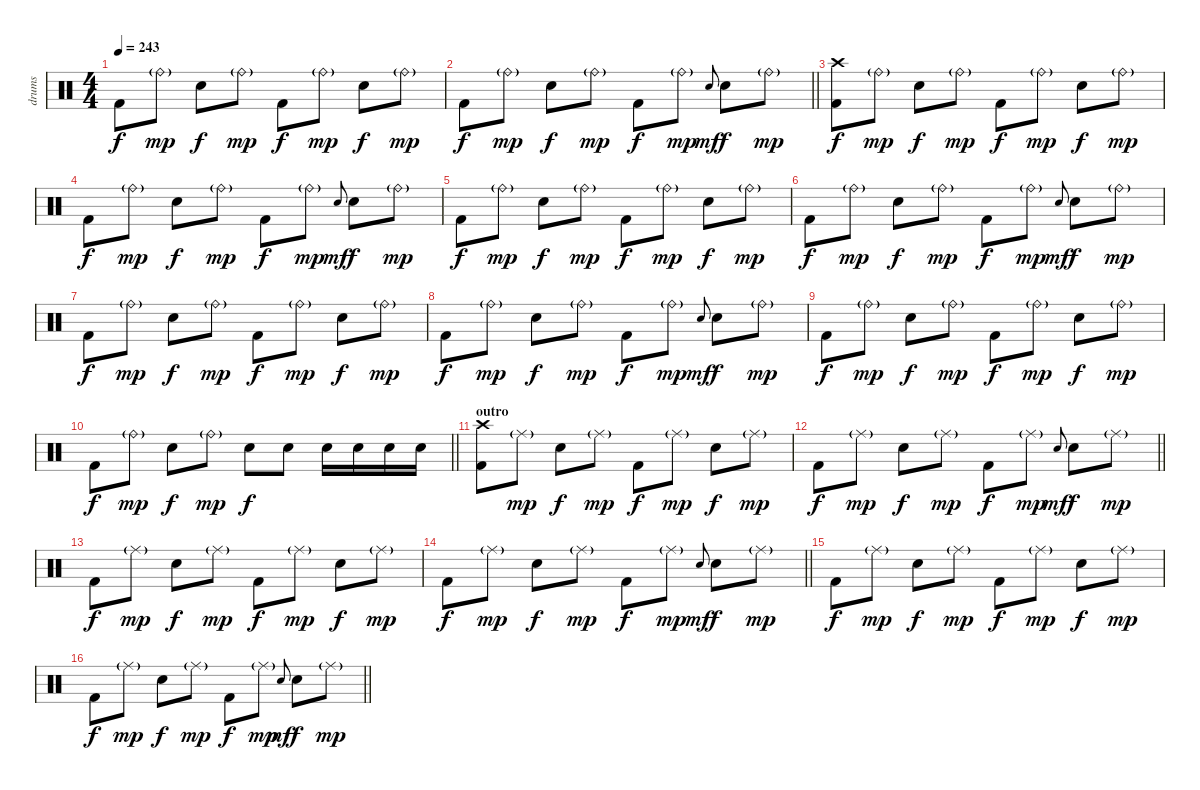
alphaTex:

\track ("drums" "drums") {instrument percussion}
\staff {score}
\articulation defaults
\ts (4 4)
\tempo 243
\clef neutral
\ks c "Kick (hit) 2".8{dy f} "Ride (bell)"{g}.8{dy mp} "Electric Snare (hit)".8{dy f} "Ride (bell)"{g}.8{dy mp} "Kick (hit) 2".8{dy f} "Ride (bell)"{g}.8{dy mp} "Electric Snare (hit)".8{dy f} "Ride (bell)"{g}.8{dy mp}
|
\barLineRight lightlight "Kick (hit) 2".8{dy f} "Ride (bell)"{g}.8{dy mp} "Electric Snare (hit)".8{dy f} "Ride (bell)"{g}.8{dy mp} "Kick (hit) 2".8{dy f} "Ride (bell)"{g}.8{dy mp} "Electric Snare (hit)"{x}.8{gr onbeat dy mf} "Electric Snare (hit)".8{dy f} "Ride (bell)"{g}.8{dy mp}
|
("Kick (hit) 2" "Crash high (hit)").8{dy f} "Ride (bell)"{g}.8{dy mp} "Electric Snare (hit)".8{dy f} "Ride (bell)"{g}.8{dy mp} "Kick (hit) 2".8{dy f} "Ride (bell)"{g}.8{dy mp} "Electric Snare (hit)".8{dy f} "Ride (bell)"{g}.8{dy mp} |
"Kick (hit) 2".8{dy f} "Ride (bell)"{g}.8{dy mp} "Electric Snare (hit)".8{dy f} "Ride (bell)"{g}.8{dy mp} "Kick (hit) 2".8{dy f} "Ride (bell)"{g}.8{dy mp} "Electric Snare (hit)"{x}.8{gr onbeat dy mf} "Electric Snare (hit)".8{dy f} "Ride (bell)"{g}.8{dy mp} |
"Kick (hit) 2".8{dy f} "Ride (bell)"{g}.8{dy mp} "Electric Snare (hit)".8{dy f} "Ride (bell)"{g}.8{dy mp} "Kick (hit) 2".8{dy f} "Ride (bell)"{g}.8{dy mp} "Electric Snare (hit)".8{dy f} "Ride (bell)"{g}.8{dy mp} |
"Kick (hit) 2".8{dy f} "Ride (bell)"{g}.8{dy mp} "Electric Snare (hit)".8{dy f} "Ride (bell)"{g}.8{dy mp} "Kick (hit) 2".8{dy f} "Ride (bell)"{g}.8{dy mp} "Electric Snare (hit)"{x}.8{gr onbeat dy mf} "Electric Snare (hit)".8{dy f} "Ride (bell)"{g}.8{dy mp} |
"Kick (hit) 2".8{dy f} "Ride (bell)"{g}.8{dy mp} "Electric Snare (hit)".8{dy f} "Ride (bell)"{g}.8{dy mp} "Kick (hit) 2".8{dy f} "Ride (bell)"{g}.8{dy mp} "Electric Snare (hit)".8{dy f} "Ride (bell)"{g}.8{dy mp} |
"Kick (hit) 2".8{dy f} "Ride (bell)"{g}.8{dy mp} "Electric Snare (hit)".8{dy f} "Ride (bell)"{g}.8{dy mp} "Kick (hit) 2".8{dy f} "Ride (bell)"{g}.8{dy mp} "Electric Snare (hit)"{x}.8{gr onbeat dy mf} "Electric Snare (hit)".8{dy f} "Ride (bell)"{g}.8{dy mp} |
"Kick (hit) 2".8{dy f} "Ride (bell)"{g}.8{dy mp} "Electric Snare (hit)".8{dy f} "Ride (bell)"{g}.8{dy mp} "Kick (hit) 2".8{dy f} "Ride (bell)"{g}.8{dy mp} "Electric Snare (hit)".8{dy f} "Ride (bell)"{g}.8{dy mp} |
\barLineRight lightlight "Kick (hit) 2".8{dy f} "Ride (bell)"{g}.8{dy mp} "Electric Snare (hit)".8{dy f} "Ride (bell)"{g}.8{dy mp} "Electric Snare (hit)".8{dy f} "Electric Snare (hit)".8 "Electric Snare (hit)".16 "Electric Snare (hit)".16 "Electric Snare (hit)".16 "Electric Snare (hit)".16
|
\section ("" "outro")
("Kick (hit) 2" "Crash high (hit)").8 "Ride (middle)"{g}.8{dy mp} "Electric Snare (hit)".8{dy f} "Ride (middle)"{g}.8{dy mp} "Kick (hit) 2".8{dy f} "Ride (middle)"{g}.8{dy mp} "Electric Snare (hit)".8{dy f} "Ride (middle)"{g}.8{dy mp} |
\barLineRight lightlight "Kick (hit) 2".8{dy f} "Ride (middle)"{g}.8{dy mp} "Electric Snare (hit)".8{dy f} "Ride (middle)"{g}.8{dy mp} "Kick (hit) 2".8{dy f} "Ride (middle)"{g}.8{dy mp} "Electric Snare (hit)"{x}.8{gr onbeat dy mf} "Electric Snare (hit)".8{dy f} "Ride (middle)"{g}.8{dy mp}
|
"Kick (hit) 2".8{dy f} "Ride (middle)"{g}.8{dy mp} "Electric Snare (hit)".8{dy f} "Ride (middle)"{g}.8{dy mp} "Kick (hit) 2".8{dy f} "Ride (middle)"{g}.8{dy mp} "Electric Snare (hit)".8{dy f} "Ride (middle)"{g}.8{dy mp} |
\barLineRight lightlight "Kick (hit) 2".8{dy f} "Ride (middle)"{g}.8{dy mp} "Electric Snare (hit)".8{dy f} "Ride (middle)"{g}.8{dy mp} "Kick (hit) 2".8{dy f} "Ride (middle)"{g}.8{dy mp} "Electric Snare (hit)"{x}.8{gr onbeat dy mf} "Electric Snare (hit)".8{dy f} "Ride (middle)"{g}.8{dy mp}
|
"Kick (hit) 2".8{dy f} "Ride (middle)"{g}.8{dy mp} "Electric Snare (hit)".8{dy f} "Ride (middle)"{g}.8{dy mp} "Kick (hit) 2".8{dy f} "Ride (middle)"{g}.8{dy mp} "Electric Snare (hit)".8{dy f} "Ride (middle)"{g}.8{dy mp} |
\barLineRight lightlight "Kick (hit) 2".8{dy f} "Ride (middle)"{g}.8{dy mp} "Electric Snare (hit)".8{dy f} "Ride (middle)"{g}.8{dy mp} "Kick (hit) 2".8{dy f} "Ride (middle)"{g}.8{dy mp} "Electric Snare (hit)"{x}.8{gr onbeat dy mf} "Electric Snare (hit)".8{dy f} "Ride (middle)"{g}.8{dy mp}
